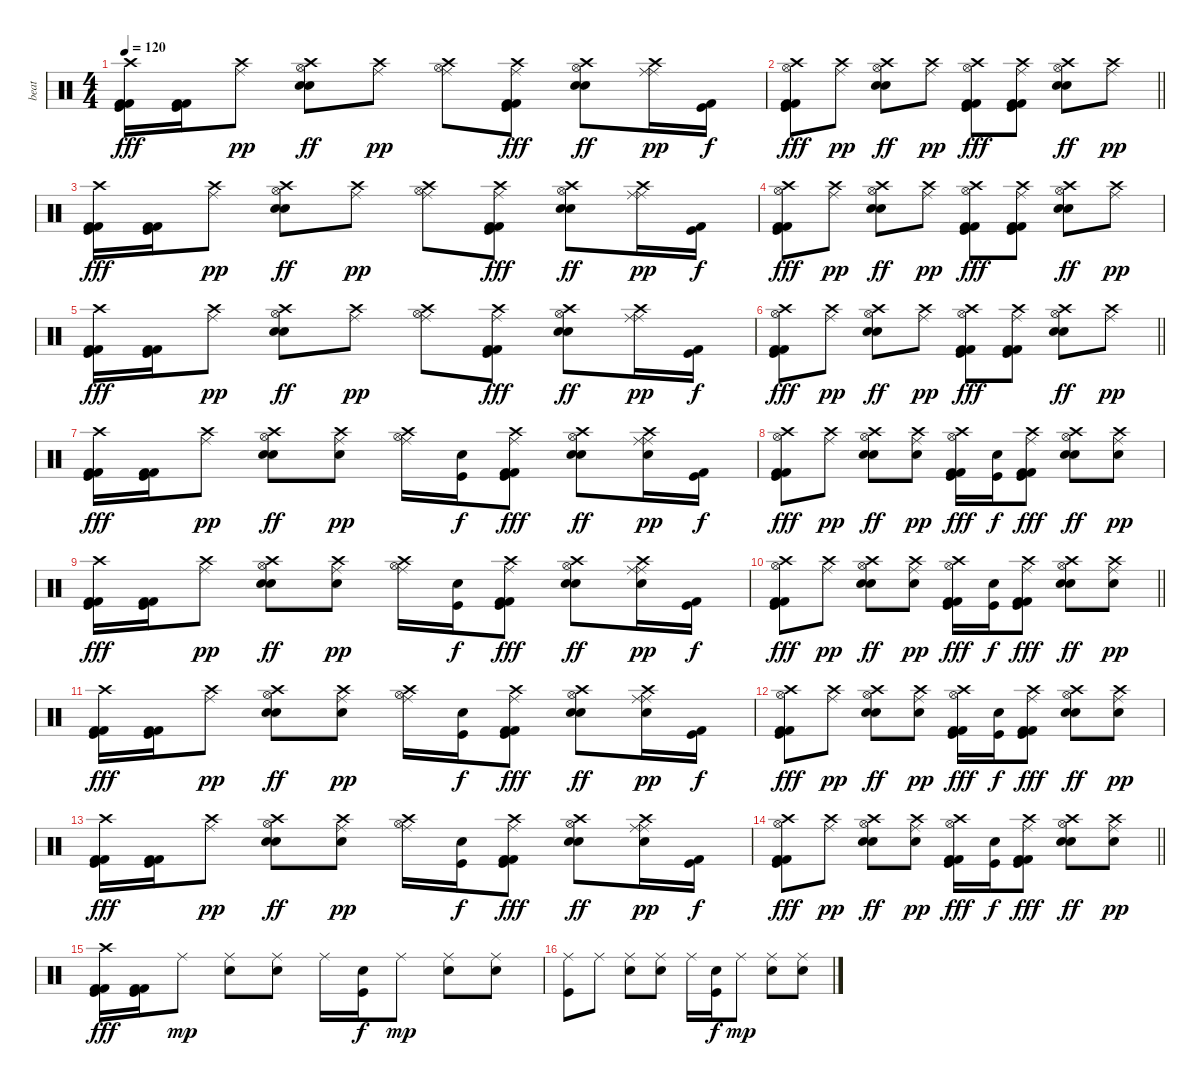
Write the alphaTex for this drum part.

\track ("beat" "beat") {instrument percussion}
\staff {score}
\articulation defaults
\ts (4 4)
\tempo 120
\clef neutral
\ks c
("Crash high (hit)" "Kick (hit) 2" "Kick (hit) 2" "Kick (hit)").16{dy fff} ("Kick (hit) 2" "Kick (hit) 2" "Kick (hit)").16 ("Crash high (hit)" "Ride (middle)").8{dy pp} ("Crash high (hit)" "Hi-Hat (open)" "Snare (hit) 2" "Electric Snare (hit)").8{dy ff} ("Crash high (hit)" "Ride (middle)").8{dy pp} ("Crash high (hit)" "Hi-Hat (open)" "Ride (middle)").8 ("Crash high (hit)" "Ride (middle)" "Kick (hit) 2" "Kick (hit) 2" "Kick (hit)").8{dy fff} ("Crash high (hit)" "Hi-Hat (open)" "Snare (hit) 2" "Electric Snare (hit)").8{dy ff} ("Crash high (hit)" "Ride (middle)" "Ride (middle)").16{dy pp} ("Kick (hit) 2" "Kick (hit)").16{dy f} |
\barLineRight lightlight
("Crash high (hit)" "Hi-Hat (open)" "Kick (hit) 2" "Kick (hit) 2" "Kick (hit)").8{dy fff} ("Crash high (hit)" "Ride (middle)").8{dy pp} ("Crash high (hit)" "Hi-Hat (open)" "Snare (hit) 2" "Electric Snare (hit)").8{dy ff} ("Crash high (hit)" "Ride (middle)").8{dy pp} ("Crash high (hit)" "Hi-Hat (open)" "Kick (hit) 2" "Kick (hit) 2" "Kick (hit)").8{dy fff} ("Crash high (hit)" "Ride (middle)" "Kick (hit) 2" "Kick (hit) 2" "Kick (hit)").8 ("Crash high (hit)" "Hi-Hat (open)" "Snare (hit) 2" "Electric Snare (hit)").8{dy ff} ("Crash high (hit)" "Ride (middle)").8{dy pp} |
("Crash high (hit)" "Kick (hit) 2" "Kick (hit) 2" "Kick (hit)").16{dy fff} ("Kick (hit) 2" "Kick (hit) 2" "Kick (hit)").16 ("Crash high (hit)" "Ride (middle)").8{dy pp} ("Crash high (hit)" "Hi-Hat (open)" "Snare (hit) 2" "Electric Snare (hit)").8{dy ff} ("Crash high (hit)" "Ride (middle)").8{dy pp} ("Crash high (hit)" "Hi-Hat (open)" "Ride (middle)").8 ("Crash high (hit)" "Ride (middle)" "Kick (hit) 2" "Kick (hit) 2" "Kick (hit)").8{dy fff} ("Crash high (hit)" "Hi-Hat (open)" "Snare (hit) 2" "Electric Snare (hit)").8{dy ff} ("Crash high (hit)" "Ride (middle)" "Ride (middle)").16{dy pp} ("Kick (hit) 2" "Kick (hit)").16{dy f} |
("Crash high (hit)" "Hi-Hat (open)" "Kick (hit) 2" "Kick (hit) 2" "Kick (hit)").8{dy fff} ("Crash high (hit)" "Ride (middle)").8{dy pp} ("Crash high (hit)" "Hi-Hat (open)" "Snare (hit) 2" "Electric Snare (hit)").8{dy ff} ("Crash high (hit)" "Ride (middle)").8{dy pp} ("Crash high (hit)" "Hi-Hat (open)" "Kick (hit) 2" "Kick (hit) 2" "Kick (hit)").8{dy fff} ("Crash high (hit)" "Ride (middle)" "Kick (hit) 2" "Kick (hit) 2" "Kick (hit)").8 ("Crash high (hit)" "Hi-Hat (open)" "Snare (hit) 2" "Electric Snare (hit)").8{dy ff} ("Crash high (hit)" "Ride (middle)").8{dy pp} |
("Crash high (hit)" "Kick (hit) 2" "Kick (hit) 2" "Kick (hit)").16{dy fff} ("Kick (hit) 2" "Kick (hit) 2" "Kick (hit)").16 ("Crash high (hit)" "Ride (middle)").8{dy pp} ("Crash high (hit)" "Hi-Hat (open)" "Snare (hit) 2" "Electric Snare (hit)").8{dy ff} ("Crash high (hit)" "Ride (middle)").8{dy pp} ("Crash high (hit)" "Hi-Hat (open)" "Ride (middle)").8 ("Crash high (hit)" "Ride (middle)" "Kick (hit) 2" "Kick (hit) 2" "Kick (hit)").8{dy fff} ("Crash high (hit)" "Hi-Hat (open)" "Snare (hit) 2" "Electric Snare (hit)").8{dy ff} ("Crash high (hit)" "Ride (middle)" "Ride (middle)").16{dy pp} ("Kick (hit) 2" "Kick (hit)").16{dy f} |
\barLineRight lightlight
("Crash high (hit)" "Hi-Hat (open)" "Kick (hit) 2" "Kick (hit) 2" "Kick (hit)").8{dy fff} ("Crash high (hit)" "Ride (middle)").8{dy pp} ("Crash high (hit)" "Hi-Hat (open)" "Snare (hit) 2" "Electric Snare (hit)").8{dy ff} ("Crash high (hit)" "Ride (middle)").8{dy pp} ("Crash high (hit)" "Hi-Hat (open)" "Kick (hit) 2" "Kick (hit) 2" "Kick (hit)").8{dy fff} ("Crash high (hit)" "Ride (middle)" "Kick (hit) 2" "Kick (hit) 2" "Kick (hit)").8 ("Crash high (hit)" "Hi-Hat (open)" "Snare (hit) 2" "Electric Snare (hit)").8{dy ff} ("Crash high (hit)" "Ride (middle)").8{dy pp} |
("Crash high (hit)" "Kick (hit) 2" "Kick (hit) 2" "Kick (hit)").16{dy fff} ("Kick (hit) 2" "Kick (hit) 2" "Kick (hit)").16 ("Crash high (hit)" "Ride (middle)").8{dy pp} ("Crash high (hit)" "Hi-Hat (open)" "Snare (hit) 2" "Electric Snare (hit)").8{dy ff} ("Crash high (hit)" "Ride (middle)" "Snare (hit) 2").8{dy pp} ("Crash high (hit)" "Hi-Hat (open)" "Ride (middle)").16 ("Snare (hit) 2" "Kick (hit)").16{dy f} ("Crash high (hit)" "Ride (middle)" "Kick (hit) 2" "Kick (hit) 2" "Kick (hit)").8{dy fff} ("Crash high (hit)" "Hi-Hat (open)" "Snare (hit) 2" "Electric Snare (hit)").8{dy ff} ("Crash high (hit)" "Ride (middle)" "Ride (middle)" "Snare (hit) 2").16{dy pp} ("Kick (hit) 2" "Kick (hit)").16{dy f} |
("Crash high (hit)" "Hi-Hat (open)" "Kick (hit) 2" "Kick (hit) 2" "Kick (hit)").8{dy fff} ("Crash high (hit)" "Ride (middle)").8{dy pp} ("Crash high (hit)" "Hi-Hat (open)" "Snare (hit) 2" "Electric Snare (hit)").8{dy ff} ("Crash high (hit)" "Ride (middle)" "Snare (hit) 2").8{dy pp} ("Crash high (hit)" "Hi-Hat (open)" "Kick (hit) 2" "Kick (hit) 2" "Kick (hit)").16{dy fff} ("Snare (hit) 2" "Kick (hit)").16{dy f} ("Crash high (hit)" "Ride (middle)" "Kick (hit) 2" "Kick (hit) 2" "Kick (hit)").8{dy fff} ("Crash high (hit)" "Hi-Hat (open)" "Snare (hit) 2" "Electric Snare (hit)").8{dy ff} ("Crash high (hit)" "Ride (middle)" "Snare (hit) 2").8{dy pp} |
("Crash high (hit)" "Kick (hit) 2" "Kick (hit) 2" "Kick (hit)").16{dy fff} ("Kick (hit) 2" "Kick (hit) 2" "Kick (hit)").16 ("Crash high (hit)" "Ride (middle)").8{dy pp} ("Crash high (hit)" "Hi-Hat (open)" "Snare (hit) 2" "Electric Snare (hit)").8{dy ff} ("Crash high (hit)" "Ride (middle)" "Snare (hit) 2").8{dy pp} ("Crash high (hit)" "Hi-Hat (open)" "Ride (middle)").16 ("Snare (hit) 2" "Kick (hit)").16{dy f} ("Crash high (hit)" "Ride (middle)" "Kick (hit) 2" "Kick (hit) 2" "Kick (hit)").8{dy fff} ("Crash high (hit)" "Hi-Hat (open)" "Snare (hit) 2" "Electric Snare (hit)").8{dy ff} ("Crash high (hit)" "Ride (middle)" "Ride (middle)" "Snare (hit) 2").16{dy pp} ("Kick (hit) 2" "Kick (hit)").16{dy f} |
\barLineRight lightlight
("Crash high (hit)" "Hi-Hat (open)" "Kick (hit) 2" "Kick (hit) 2" "Kick (hit)").8{dy fff} ("Crash high (hit)" "Ride (middle)").8{dy pp} ("Crash high (hit)" "Hi-Hat (open)" "Snare (hit) 2" "Electric Snare (hit)").8{dy ff} ("Crash high (hit)" "Ride (middle)" "Snare (hit) 2").8{dy pp} ("Crash high (hit)" "Hi-Hat (open)" "Kick (hit) 2" "Kick (hit) 2" "Kick (hit)").16{dy fff} ("Snare (hit) 2" "Kick (hit)").16{dy f} ("Crash high (hit)" "Ride (middle)" "Kick (hit) 2" "Kick (hit) 2" "Kick (hit)").8{dy fff} ("Crash high (hit)" "Hi-Hat (open)" "Snare (hit) 2" "Electric Snare (hit)").8{dy ff} ("Crash high (hit)" "Ride (middle)" "Snare (hit) 2").8{dy pp} |
("Crash high (hit)" "Kick (hit) 2" "Kick (hit) 2" "Kick (hit)").16{dy fff} ("Kick (hit) 2" "Kick (hit) 2" "Kick (hit)").16 ("Crash high (hit)" "Ride (middle)").8{dy pp} ("Crash high (hit)" "Hi-Hat (open)" "Snare (hit) 2" "Electric Snare (hit)").8{dy ff} ("Crash high (hit)" "Ride (middle)" "Snare (hit) 2").8{dy pp} ("Crash high (hit)" "Hi-Hat (open)" "Ride (middle)").16 ("Snare (hit) 2" "Kick (hit)").16{dy f} ("Crash high (hit)" "Ride (middle)" "Kick (hit) 2" "Kick (hit) 2" "Kick (hit)").8{dy fff} ("Crash high (hit)" "Hi-Hat (open)" "Snare (hit) 2" "Electric Snare (hit)").8{dy ff} ("Crash high (hit)" "Ride (middle)" "Ride (middle)" "Snare (hit) 2").16{dy pp} ("Kick (hit) 2" "Kick (hit)").16{dy f} |
("Crash high (hit)" "Hi-Hat (open)" "Kick (hit) 2" "Kick (hit) 2" "Kick (hit)").8{dy fff} ("Crash high (hit)" "Ride (middle)").8{dy pp} ("Crash high (hit)" "Hi-Hat (open)" "Snare (hit) 2" "Electric Snare (hit)").8{dy ff} ("Crash high (hit)" "Ride (middle)" "Snare (hit) 2").8{dy pp} ("Crash high (hit)" "Hi-Hat (open)" "Kick (hit) 2" "Kick (hit) 2" "Kick (hit)").16{dy fff} ("Snare (hit) 2" "Kick (hit)").16{dy f} ("Crash high (hit)" "Ride (middle)" "Kick (hit) 2" "Kick (hit) 2" "Kick (hit)").8{dy fff} ("Crash high (hit)" "Hi-Hat (open)" "Snare (hit) 2" "Electric Snare (hit)").8{dy ff} ("Crash high (hit)" "Ride (middle)" "Snare (hit) 2").8{dy pp} |
("Crash high (hit)" "Kick (hit) 2" "Kick (hit) 2" "Kick (hit)").16{dy fff} ("Kick (hit) 2" "Kick (hit) 2" "Kick (hit)").16 ("Crash high (hit)" "Ride (middle)").8{dy pp} ("Crash high (hit)" "Hi-Hat (open)" "Snare (hit) 2" "Electric Snare (hit)").8{dy ff} ("Crash high (hit)" "Ride (middle)" "Snare (hit) 2").8{dy pp} ("Crash high (hit)" "Hi-Hat (open)" "Ride (middle)").16 ("Snare (hit) 2" "Kick (hit)").16{dy f} ("Crash high (hit)" "Ride (middle)" "Kick (hit) 2" "Kick (hit) 2" "Kick (hit)").8{dy fff} ("Crash high (hit)" "Hi-Hat (open)" "Snare (hit) 2" "Electric Snare (hit)").8{dy ff} ("Crash high (hit)" "Ride (middle)" "Ride (middle)" "Snare (hit) 2").16{dy pp} ("Kick (hit) 2" "Kick (hit)").16{dy f} |
\barLineRight lightlight
("Crash high (hit)" "Hi-Hat (open)" "Kick (hit) 2" "Kick (hit) 2" "Kick (hit)").8{dy fff} ("Crash high (hit)" "Ride (middle)").8{dy pp} ("Crash high (hit)" "Hi-Hat (open)" "Snare (hit) 2" "Electric Snare (hit)").8{dy ff} ("Crash high (hit)" "Ride (middle)" "Snare (hit) 2").8{dy pp} ("Crash high (hit)" "Hi-Hat (open)" "Kick (hit) 2" "Kick (hit) 2" "Kick (hit)").16{dy fff} ("Snare (hit) 2" "Kick (hit)").16{dy f} ("Crash high (hit)" "Ride (middle)" "Kick (hit) 2" "Kick (hit) 2" "Kick (hit)").8{dy fff} ("Crash high (hit)" "Hi-Hat (open)" "Snare (hit) 2" "Electric Snare (hit)").8{dy ff} ("Crash high (hit)" "Ride (middle)" "Snare (hit) 2").8{dy pp} |
("Crash high (hit)" "Kick (hit) 2" "Kick (hit) 2" "Kick (hit)").16{dy fff} ("Kick (hit) 2" "Kick (hit) 2" "Kick (hit)").16 "Ride (middle)".8{dy mp} ("Ride (middle)" "Snare (hit) 2").8 ("Ride (middle)" "Snare (hit) 2").8 "Ride (middle)".16 ("Kick (hit)" "Snare (hit) 2").16{dy f} "Ride (middle)".8{dy mp} ("Ride (middle)" "Snare (hit) 2").8 ("Ride (middle)" "Snare (hit) 2").8 |
("Ride (middle)" "Kick (hit)").8 "Ride (middle)".8 ("Ride (middle)" "Snare (hit) 2").8 ("Ride (middle)" "Snare (hit) 2").8 "Ride (middle)".16 ("Kick (hit)" "Snare (hit) 2").16{dy f} "Ride (middle)".8{dy mp} ("Ride (middle)" "Snare (hit) 2").8 ("Ride (middle)" "Snare (hit) 2").8
